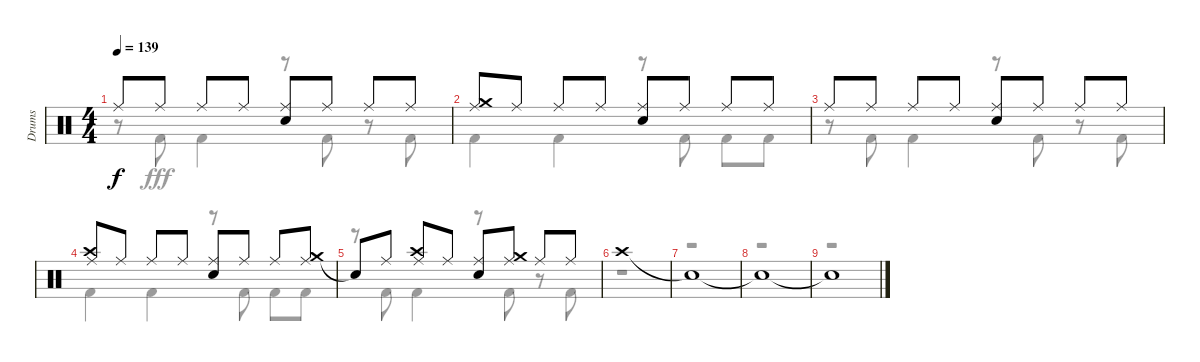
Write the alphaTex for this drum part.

\track ("Drums" "Drums") {instrument percussion}
\staff {score}
\articulation defaults
\voice
\ts (4 4)
\tempo 139
\clef neutral
\ks aminor "Ride (middle)".8{dy f} "Ride (middle)".8 "Ride (middle)".8 "Ride (middle)".8
("Ride (middle)" "Snare (hit) 2").8 "Ride (middle)".8 "Ride (middle)".8 "Ride (middle)".8 |
("Crash medium (hit)" "Ride (middle)").8 "Ride (middle)".8 "Ride (middle)".8 "Ride (middle)".8 ("Ride (middle)" "Snare (hit) 2").8 "Ride (middle)".8 "Ride (middle)".8 "Ride (middle)".8 |
"Ride (middle)".8 "Ride (middle)".8 "Ride (middle)".8 "Ride (middle)".8 ("Ride (middle)" "Snare (hit) 2").8 "Ride (middle)".8 "Ride (middle)".8 "Ride (middle)".8 |
("Crash high (hit)" "Ride (middle)").8 "Ride (middle)".8 "Ride (middle)".8 "Ride (middle)".8 ("Ride (middle)" "Snare (hit) 2").8 "Ride (middle)".8 "Ride (middle)".8 ("Crash medium (hit)" "Ride (middle)").8 |
"Snare (hit)"{t}.8 "Ride (middle)".8 ("Crash high (hit)" "Ride (middle)").8 "Ride (middle)".8 ("Ride (middle)" "Snare (hit) 2").8 ("Crash medium (hit)" "Ride (middle)").8 "Ride (middle)".8 "Ride (middle)".8 |
"Crash high (hit)".1 |
"Snare (hit)"{t}.1 |
"Snare (hit)"{t}.1 |
"Snare (hit)"{t}.1
\voice
\clef neutral
\ottava regular
\simile none
\ks aminor
r.8{dy fff} "Kick (hit) 2".8 "Kick (hit) 2".4 r.8 "Kick (hit) 2".8 r.8 "Kick (hit) 2".8 |
"Kick (hit) 2".4 "Kick (hit) 2".4 r.8 "Kick (hit) 2".8 "Kick (hit) 2".8 "Kick (hit) 2".8 |
r.8 "Kick (hit) 2".8 "Kick (hit) 2".4 r.8 "Kick (hit) 2".8 r.8 "Kick (hit) 2".8 |
"Kick (hit) 2".4 "Kick (hit) 2".4 r.8 "Kick (hit) 2".8 "Kick (hit) 2".8 "Kick (hit) 2".8 |
r.8 "Kick (hit) 2".8 "Kick (hit) 2".4 r.8 "Kick (hit) 2".8 r.8 "Kick (hit) 2".8 |
r.1 |
r.1 |
r.1 |
r.1
